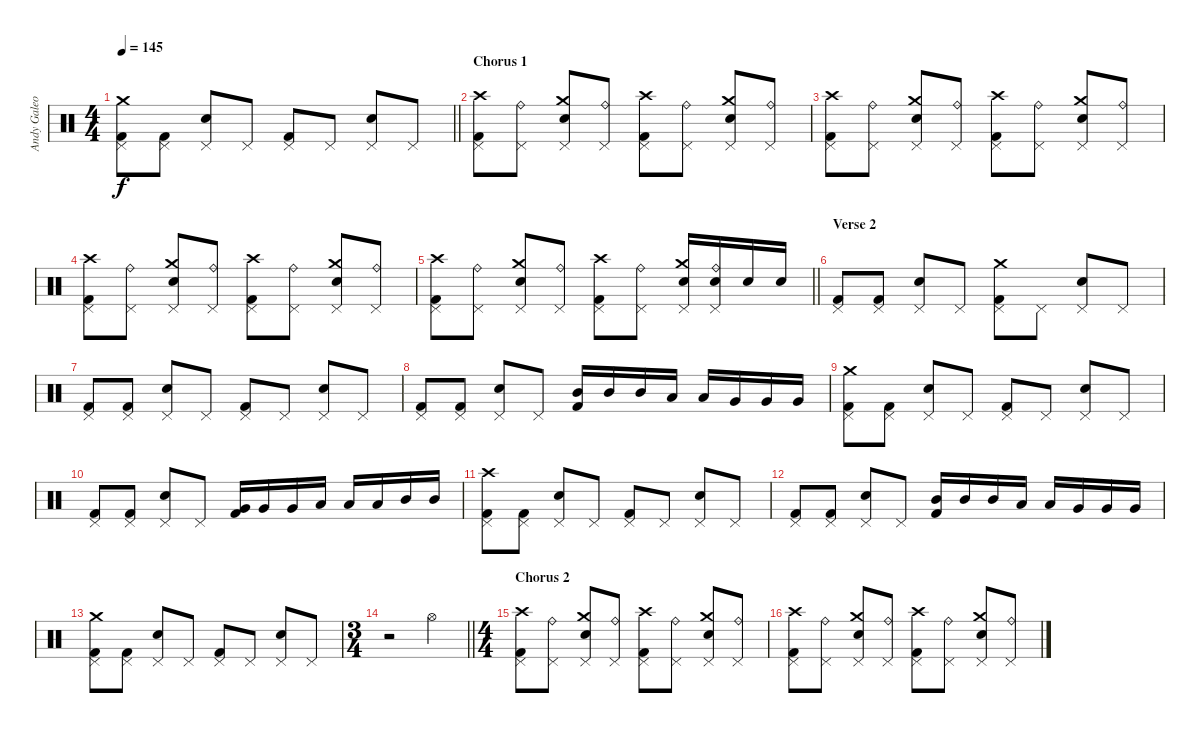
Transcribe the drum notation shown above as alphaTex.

\track ("Andy Galeon" "Andy Galeo") {instrument percussion}
\staff {score}
\articulation defaults
\ts (4 4)
\tempo 145
\clef neutral
\barLineRight lightlight
\ks c
("Kick (hit) 2" "Pedal Hi-Hat (hit)" "Crash medium (hit)").8{dy f} ("Kick (hit) 2" "Pedal Hi-Hat (hit)").8 ("Electric Snare (hit)" "Pedal Hi-Hat (hit)").8 "Pedal Hi-Hat (hit)".8 ("Kick (hit) 2" "Pedal Hi-Hat (hit)").8 "Pedal Hi-Hat (hit)".8 ("Electric Snare (hit)" "Pedal Hi-Hat (hit)").8 "Pedal Hi-Hat (hit)".8 |
\section ("" "Chorus 1")
("Kick (hit) 2" "Pedal Hi-Hat (hit)" "Crash high (hit)").8 ("Pedal Hi-Hat (hit)" "Ride (bell)").8 ("Electric Snare (hit)" "Pedal Hi-Hat (hit)" "Crash medium (hit)").8 ("Pedal Hi-Hat (hit)" "Ride (bell)").8 ("Kick (hit) 2" "Pedal Hi-Hat (hit)" "Crash high (hit)").8 ("Pedal Hi-Hat (hit)" "Ride (bell)").8 ("Electric Snare (hit)" "Pedal Hi-Hat (hit)" "Crash medium (hit)").8 ("Pedal Hi-Hat (hit)" "Ride (bell)").8 |
("Kick (hit) 2" "Pedal Hi-Hat (hit)" "Crash high (hit)").8 ("Pedal Hi-Hat (hit)" "Ride (bell)").8 ("Electric Snare (hit)" "Pedal Hi-Hat (hit)" "Crash medium (hit)").8 ("Pedal Hi-Hat (hit)" "Ride (bell)").8 ("Kick (hit) 2" "Pedal Hi-Hat (hit)" "Crash high (hit)").8 ("Pedal Hi-Hat (hit)" "Ride (bell)").8 ("Electric Snare (hit)" "Pedal Hi-Hat (hit)" "Crash medium (hit)").8 ("Pedal Hi-Hat (hit)" "Ride (bell)").8 |
("Kick (hit) 2" "Pedal Hi-Hat (hit)" "Crash high (hit)").8 ("Pedal Hi-Hat (hit)" "Ride (bell)").8 ("Electric Snare (hit)" "Pedal Hi-Hat (hit)" "Crash medium (hit)").8 ("Pedal Hi-Hat (hit)" "Ride (bell)").8 ("Kick (hit) 2" "Pedal Hi-Hat (hit)" "Crash high (hit)").8 ("Pedal Hi-Hat (hit)" "Ride (bell)").8 ("Electric Snare (hit)" "Pedal Hi-Hat (hit)" "Crash medium (hit)").8 ("Pedal Hi-Hat (hit)" "Ride (bell)").8 |
\barLineRight lightlight
("Kick (hit) 2" "Pedal Hi-Hat (hit)" "Crash high (hit)").8 ("Pedal Hi-Hat (hit)" "Ride (bell)").8 ("Electric Snare (hit)" "Pedal Hi-Hat (hit)" "Crash medium (hit)").8 ("Pedal Hi-Hat (hit)" "Ride (bell)").8 ("Kick (hit) 2" "Pedal Hi-Hat (hit)" "Crash high (hit)").8 ("Pedal Hi-Hat (hit)" "Ride (bell)").8 ("Electric Snare (hit)" "Pedal Hi-Hat (hit)" "Crash medium (hit)").16 ("Electric Snare (hit)" "Pedal Hi-Hat (hit)" "Ride (bell)").16 "Electric Snare (hit)".16 "Electric Snare (hit)".16 |
\section ("" "Verse 2")
("Kick (hit) 2" "Pedal Hi-Hat (hit)").8 ("Kick (hit) 2" "Pedal Hi-Hat (hit)").8 ("Electric Snare (hit)" "Pedal Hi-Hat (hit)").8 "Pedal Hi-Hat (hit)".8 ("Kick (hit) 2" "Pedal Hi-Hat (hit)" "Crash medium (hit)").8 "Pedal Hi-Hat (hit)".8 ("Electric Snare (hit)" "Pedal Hi-Hat (hit)").8 "Pedal Hi-Hat (hit)".8 |
("Kick (hit) 2" "Pedal Hi-Hat (hit)").8 ("Kick (hit) 2" "Pedal Hi-Hat (hit)").8 ("Electric Snare (hit)" "Pedal Hi-Hat (hit)").8 "Pedal Hi-Hat (hit)".8 ("Kick (hit) 2" "Pedal Hi-Hat (hit)").8 "Pedal Hi-Hat (hit)".8 ("Electric Snare (hit)" "Pedal Hi-Hat (hit)").8 "Pedal Hi-Hat (hit)".8 |
("Kick (hit) 2" "Pedal Hi-Hat (hit)").8 ("Kick (hit) 2" "Pedal Hi-Hat (hit)").8 ("Electric Snare (hit)" "Pedal Hi-Hat (hit)").8 "Pedal Hi-Hat (hit)".8 ("Kick (hit) 2" "Mid Tom (hit)").16 "Mid Tom (hit)".16 "Mid Tom (hit)".16 "Low Tom (hit)".16 "Low Tom (hit)".16 "Very Low Tom (hit)".16 "Very Low Tom (hit)".16 "Very Low Tom (hit)".16 |
("Kick (hit) 2" "Pedal Hi-Hat (hit)" "Crash medium (hit)").8 ("Kick (hit) 2" "Pedal Hi-Hat (hit)").8 ("Electric Snare (hit)" "Pedal Hi-Hat (hit)").8 "Pedal Hi-Hat (hit)".8 ("Kick (hit) 2" "Pedal Hi-Hat (hit)").8 "Pedal Hi-Hat (hit)".8 ("Electric Snare (hit)" "Pedal Hi-Hat (hit)").8 "Pedal Hi-Hat (hit)".8 |
("Kick (hit) 2" "Pedal Hi-Hat (hit)").8 ("Kick (hit) 2" "Pedal Hi-Hat (hit)").8 ("Electric Snare (hit)" "Pedal Hi-Hat (hit)").8 "Pedal Hi-Hat (hit)".8 ("Kick (hit) 2" "Very Low Tom (hit)").16 "Very Low Tom (hit)".16 "Very Low Tom (hit)".16 "Low Tom (hit)".16 "Low Tom (hit)".16 "Low Tom (hit)".16 "Mid Tom (hit)".16 "Mid Tom (hit)".16 |
("Kick (hit) 2" "Pedal Hi-Hat (hit)" "Crash high (hit)").8 ("Kick (hit) 2" "Pedal Hi-Hat (hit)").8 ("Electric Snare (hit)" "Pedal Hi-Hat (hit)").8 "Pedal Hi-Hat (hit)".8 ("Kick (hit) 2" "Pedal Hi-Hat (hit)").8 "Pedal Hi-Hat (hit)".8 ("Electric Snare (hit)" "Pedal Hi-Hat (hit)").8 "Pedal Hi-Hat (hit)".8 |
("Kick (hit) 2" "Pedal Hi-Hat (hit)").8 ("Kick (hit) 2" "Pedal Hi-Hat (hit)").8 ("Electric Snare (hit)" "Pedal Hi-Hat (hit)").8 "Pedal Hi-Hat (hit)".8 ("Kick (hit) 2" "Mid Tom (hit)").16 "Mid Tom (hit)".16 "Mid Tom (hit)".16 "Low Tom (hit)".16 "Low Tom (hit)".16 "Very Low Tom (hit)".16 "Very Low Tom (hit)".16 "Very Low Tom (hit)".16 |
("Kick (hit) 2" "Pedal Hi-Hat (hit)" "Crash medium (hit)").8 ("Kick (hit) 2" "Pedal Hi-Hat (hit)").8 ("Electric Snare (hit)" "Pedal Hi-Hat (hit)").8 "Pedal Hi-Hat (hit)".8 ("Kick (hit) 2" "Pedal Hi-Hat (hit)").8 "Pedal Hi-Hat (hit)".8 ("Electric Snare (hit)" "Pedal Hi-Hat (hit)").8 "Pedal Hi-Hat (hit)".8 |
\ts (3 4)
\barLineRight lightlight
r.2 "Hi-Hat (open)".4 |
\ts (4 4)
\section ("" "Chorus 2")
("Kick (hit) 2" "Pedal Hi-Hat (hit)" "Crash high (hit)").8 ("Pedal Hi-Hat (hit)" "Ride (bell)").8 ("Electric Snare (hit)" "Pedal Hi-Hat (hit)" "Crash medium (hit)").8 ("Pedal Hi-Hat (hit)" "Ride (bell)").8 ("Kick (hit) 2" "Pedal Hi-Hat (hit)" "Crash high (hit)").8 ("Pedal Hi-Hat (hit)" "Ride (bell)").8 ("Electric Snare (hit)" "Pedal Hi-Hat (hit)" "Crash medium (hit)").8 ("Pedal Hi-Hat (hit)" "Ride (bell)").8 |
("Kick (hit) 2" "Pedal Hi-Hat (hit)" "Crash high (hit)").8 ("Pedal Hi-Hat (hit)" "Ride (bell)").8 ("Electric Snare (hit)" "Pedal Hi-Hat (hit)" "Crash medium (hit)").8 ("Pedal Hi-Hat (hit)" "Ride (bell)").8 ("Kick (hit) 2" "Pedal Hi-Hat (hit)" "Crash high (hit)").8 ("Pedal Hi-Hat (hit)" "Ride (bell)").8 ("Electric Snare (hit)" "Pedal Hi-Hat (hit)" "Crash medium (hit)").8 ("Pedal Hi-Hat (hit)" "Ride (bell)").8
